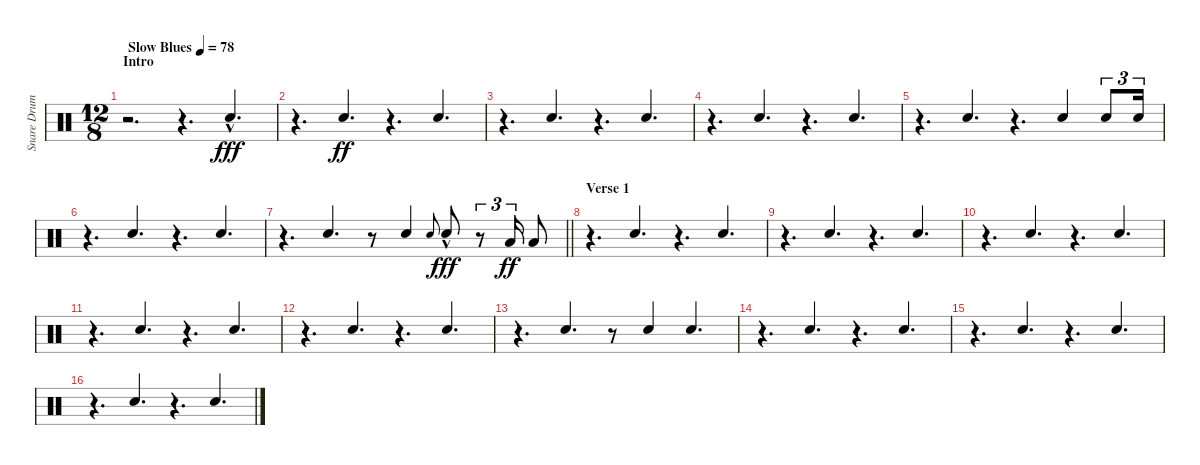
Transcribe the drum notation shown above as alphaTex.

\track ("Snare Drum" "Snare Drum") {instrument percussion}
\staff {score}
\articulation defaults
\ts (12 8)
\section ("" "Intro")
\tempo (78 "Slow Blues")
\clef neutral
\ks c
r.2{d dy fff} r.4{d} "Electric Snare (hit)"{hac}.4{d beam Up} |
r.4{d} "Electric Snare (hit)".4{d dy ff beam Up} r.4{d} "Electric Snare (hit)".4{d beam Up} |
r.4{d} "Electric Snare (hit)".4{d beam Up} r.4{d} "Electric Snare (hit)".4{d beam Up} |
r.4{d} "Electric Snare (hit)".4{d beam Up} r.4{d} "Electric Snare (hit)".4{d beam Up} |
r.4{d} "Electric Snare (hit)".4{d beam Up} r.4{d} "Electric Snare (hit)".4{beam Up} "Electric Snare (hit)".8{tu (3 2) beam Up} "Electric Snare (hit)".16{tu (3 2) beam Up} |
r.4{d} "Electric Snare (hit)".4{d beam Up} r.4{d} "Electric Snare (hit)".4{d beam Up} |
\barLineRight lightlight
r.4{d} "Electric Snare (hit)".4{d beam Up} r.8 "Electric Snare (hit)".4{beam Up} "Electric Snare (hit)".8{gr onbeat} "Electric Snare (hit)"{hac}.8{dy fff beam Up} r.8{tu (3 2) beam Up} "Low Tom (hit)".16{tu (3 2) dy ff beam Up} "Low Tom (hit)".8{beam Up} |
\section ("" "Verse 1")
r.4{d} "Electric Snare (hit)".4{d beam Up} r.4{d} "Electric Snare (hit)".4{d beam Up} |
r.4{d} "Electric Snare (hit)".4{d beam Up} r.4{d} "Electric Snare (hit)".4{d beam Up} |
r.4{d} "Electric Snare (hit)".4{d beam Up} r.4{d} "Electric Snare (hit)".4{d beam Up} |
r.4{d} "Electric Snare (hit)".4{d beam Up} r.4{d} "Electric Snare (hit)".4{d beam Up} |
r.4{d} "Electric Snare (hit)".4{d beam Up} r.4{d} "Electric Snare (hit)".4{d beam Up} |
r.4{d} "Electric Snare (hit)".4{d beam Up} r.8 "Electric Snare (hit)".4{beam Up} "Electric Snare (hit)".4{d beam Up} |
r.4{d} "Electric Snare (hit)".4{d beam Up} r.4{d} "Electric Snare (hit)".4{d beam Up} |
r.4{d} "Electric Snare (hit)".4{d beam Up} r.4{d} "Electric Snare (hit)".4{d beam Up} |
r.4{d} "Electric Snare (hit)".4{d beam Up} r.4{d} "Electric Snare (hit)".4{d beam Up}
